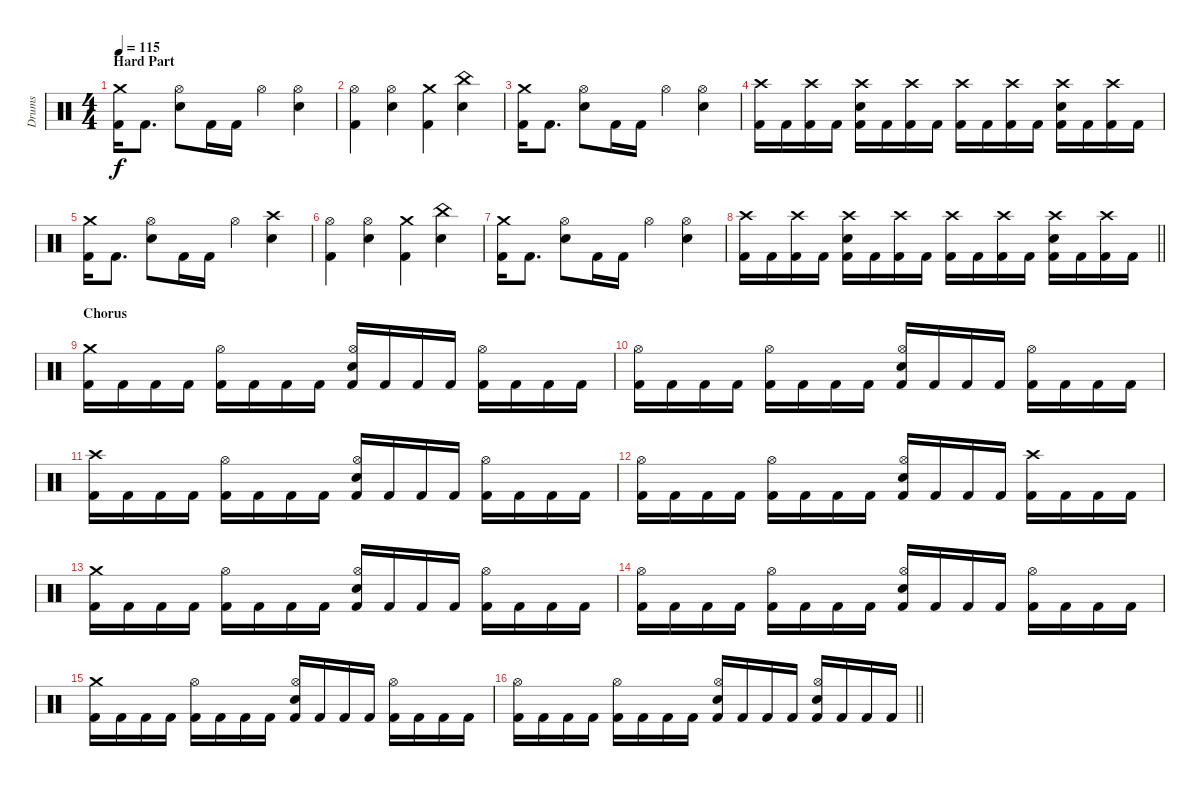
\track ("Drums" "Drums") {instrument percussion}
\staff {score}
\articulation defaults
\ts (4 4)
\section ("" "Hard Part")
\tempo 115
\clef neutral
\ks c
("Crash medium (hit)" "Kick (hit) 2").16{dy f} "Kick (hit) 2".8{d} ("Hi-Hat (open)" "Snare (hit) 2").8 "Kick (hit) 2".16 "Kick (hit) 2".16 "Hi-Hat (open)".4 ("Hi-Hat (open)" "Snare (hit) 2").4 |
("Hi-Hat (open)" "Kick (hit) 2").4 ("Hi-Hat (open)" "Snare (hit) 2").4 ("Crash medium (hit)" "Kick (hit) 2").4 ("China (hit)" "Snare (hit) 2").4 |
("Crash medium (hit)" "Kick (hit) 2").16 "Kick (hit) 2".8{d} ("Hi-Hat (open)" "Snare (hit) 2").8 "Kick (hit) 2".16 "Kick (hit) 2".16 "Hi-Hat (open)".4 ("Hi-Hat (open)" "Snare (hit) 2").4 |
("Crash high (hit)" "Kick (hit) 2").16 "Kick (hit) 2".16 ("Crash high (hit)" "Kick (hit) 2").16 "Kick (hit) 2".16 ("Crash high (hit)" "Snare (hit) 2" "Kick (hit) 2").16 "Kick (hit) 2".16 ("Crash high (hit)" "Kick (hit) 2").16 "Kick (hit) 2".16 ("Crash high (hit)" "Kick (hit) 2").16 "Kick (hit) 2".16 ("Crash high (hit)" "Kick (hit) 2").16 "Kick (hit) 2".16 ("Crash high (hit)" "Snare (hit) 2" "Kick (hit) 2").16 "Kick (hit) 2".16 ("Crash high (hit)" "Kick (hit) 2").16 "Kick (hit) 2".16 |
("Crash medium (hit)" "Kick (hit) 2").16 "Kick (hit) 2".8{d} ("Hi-Hat (open)" "Snare (hit) 2").8 "Kick (hit) 2".16 "Kick (hit) 2".16 "Hi-Hat (open)".4 ("Crash high (hit)" "Snare (hit) 2").4 |
("Hi-Hat (open)" "Kick (hit) 2").4 ("Hi-Hat (open)" "Snare (hit) 2").4 ("Crash medium (hit)" "Kick (hit) 2").4 ("China (hit)" "Snare (hit) 2").4 |
("Crash medium (hit)" "Kick (hit) 2").16 "Kick (hit) 2".8{d} ("Hi-Hat (open)" "Snare (hit) 2").8 "Kick (hit) 2".16 "Kick (hit) 2".16 "Hi-Hat (open)".4 ("Hi-Hat (open)" "Snare (hit) 2").4 |
\barLineRight lightlight
("Crash high (hit)" "Kick (hit) 2").16 "Kick (hit) 2".16 ("Crash high (hit)" "Kick (hit) 2").16 "Kick (hit) 2".16 ("Crash high (hit)" "Snare (hit) 2" "Kick (hit) 2").16 "Kick (hit) 2".16 ("Crash high (hit)" "Kick (hit) 2").16 "Kick (hit) 2".16 ("Crash high (hit)" "Kick (hit) 2").16 "Kick (hit) 2".16 ("Crash high (hit)" "Kick (hit) 2").16 "Kick (hit) 2".16 ("Crash high (hit)" "Snare (hit) 2" "Kick (hit) 2").16 "Kick (hit) 2".16 ("Crash high (hit)" "Kick (hit) 2").16 "Kick (hit) 2".16 |
\section ("" "Chorus")
("Crash medium (hit)" "Kick (hit) 2").16 "Kick (hit) 2".16 "Kick (hit) 2".16 "Kick (hit) 2".16 ("Hi-Hat (open)" "Kick (hit) 2").16 "Kick (hit) 2".16 "Kick (hit) 2".16 "Kick (hit) 2".16 ("Hi-Hat (open)" "Snare (hit) 2" "Kick (hit) 2").16 "Kick (hit) 2".16 "Kick (hit) 2".16 "Kick (hit) 2".16 ("Hi-Hat (open)" "Kick (hit) 2").16 "Kick (hit) 2".16 "Kick (hit) 2".16 "Kick (hit) 2".16 |
("Hi-Hat (open)" "Kick (hit) 2").16 "Kick (hit) 2".16 "Kick (hit) 2".16 "Kick (hit) 2".16 ("Hi-Hat (open)" "Kick (hit) 2").16 "Kick (hit) 2".16 "Kick (hit) 2".16 "Kick (hit) 2".16 ("Hi-Hat (open)" "Snare (hit) 2" "Kick (hit) 2").16 "Kick (hit) 2".16 "Kick (hit) 2".16 "Kick (hit) 2".16 ("Hi-Hat (open)" "Kick (hit) 2").16 "Kick (hit) 2".16 "Kick (hit) 2".16 "Kick (hit) 2".16 |
("Crash high (hit)" "Kick (hit) 2").16 "Kick (hit) 2".16 "Kick (hit) 2".16 "Kick (hit) 2".16 ("Hi-Hat (open)" "Kick (hit) 2").16 "Kick (hit) 2".16 "Kick (hit) 2".16 "Kick (hit) 2".16 ("Hi-Hat (open)" "Snare (hit) 2" "Kick (hit) 2").16 "Kick (hit) 2".16 "Kick (hit) 2".16 "Kick (hit) 2".16 ("Hi-Hat (open)" "Kick (hit) 2").16 "Kick (hit) 2".16 "Kick (hit) 2".16 "Kick (hit) 2".16 |
("Hi-Hat (open)" "Kick (hit) 2").16 "Kick (hit) 2".16 "Kick (hit) 2".16 "Kick (hit) 2".16 ("Hi-Hat (open)" "Kick (hit) 2").16 "Kick (hit) 2".16 "Kick (hit) 2".16 "Kick (hit) 2".16 ("Hi-Hat (open)" "Snare (hit) 2" "Kick (hit) 2").16 "Kick (hit) 2".16 "Kick (hit) 2".16 "Kick (hit) 2".16 ("Crash high (hit)" "Kick (hit) 2").16 "Kick (hit) 2".16 "Kick (hit) 2".16 "Kick (hit) 2".16 |
("Crash medium (hit)" "Kick (hit) 2").16 "Kick (hit) 2".16 "Kick (hit) 2".16 "Kick (hit) 2".16 ("Hi-Hat (open)" "Kick (hit) 2").16 "Kick (hit) 2".16 "Kick (hit) 2".16 "Kick (hit) 2".16 ("Hi-Hat (open)" "Snare (hit) 2" "Kick (hit) 2").16 "Kick (hit) 2".16 "Kick (hit) 2".16 "Kick (hit) 2".16 ("Hi-Hat (open)" "Kick (hit) 2").16 "Kick (hit) 2".16 "Kick (hit) 2".16 "Kick (hit) 2".16 |
("Hi-Hat (open)" "Kick (hit) 2").16 "Kick (hit) 2".16 "Kick (hit) 2".16 "Kick (hit) 2".16 ("Hi-Hat (open)" "Kick (hit) 2").16 "Kick (hit) 2".16 "Kick (hit) 2".16 "Kick (hit) 2".16 ("Hi-Hat (open)" "Snare (hit) 2" "Kick (hit) 2").16 "Kick (hit) 2".16 "Kick (hit) 2".16 "Kick (hit) 2".16 ("Hi-Hat (open)" "Kick (hit) 2").16 "Kick (hit) 2".16 "Kick (hit) 2".16 "Kick (hit) 2".16 |
("Crash medium (hit)" "Kick (hit) 2").16 "Kick (hit) 2".16 "Kick (hit) 2".16 "Kick (hit) 2".16 ("Hi-Hat (open)" "Kick (hit) 2").16 "Kick (hit) 2".16 "Kick (hit) 2".16 "Kick (hit) 2".16 ("Hi-Hat (open)" "Snare (hit) 2" "Kick (hit) 2").16 "Kick (hit) 2".16 "Kick (hit) 2".16 "Kick (hit) 2".16 ("Hi-Hat (open)" "Kick (hit) 2").16 "Kick (hit) 2".16 "Kick (hit) 2".16 "Kick (hit) 2".16 |
\barLineRight lightlight
("Hi-Hat (open)" "Kick (hit) 2").16 "Kick (hit) 2".16 "Kick (hit) 2".16 "Kick (hit) 2".16 ("Hi-Hat (open)" "Kick (hit) 2").16 "Kick (hit) 2".16 "Kick (hit) 2".16 "Kick (hit) 2".16 ("Hi-Hat (open)" "Snare (hit) 2" "Kick (hit) 2").16 "Kick (hit) 2".16 "Kick (hit) 2".16 "Kick (hit) 2".16 ("Hi-Hat (open)" "Snare (hit) 2" "Kick (hit) 2").16 "Kick (hit) 2".16 "Kick (hit) 2".16 "Kick (hit) 2".16
